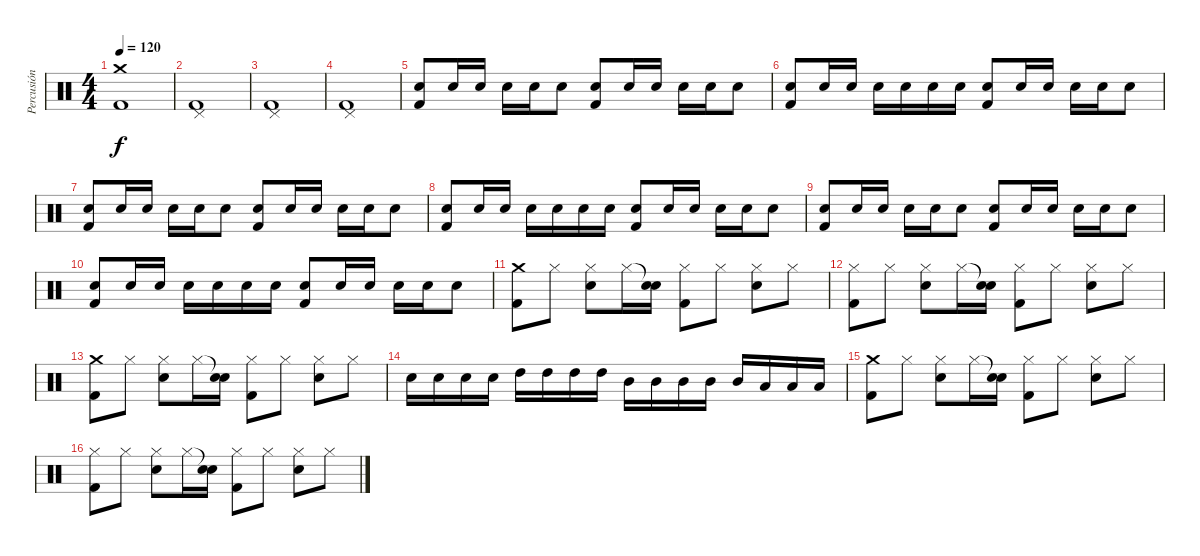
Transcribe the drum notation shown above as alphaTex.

\track ("Percusión" "Percusión") {instrument percussion}
\staff {score}
\articulation defaults
\ts (4 4)
\tempo 120
\clef neutral
\ks c
("Crash medium (hit)" "Kick (hit) 2").1{dy f} |
("Pedal Hi-Hat (hit)" "Kick (hit) 2").1 |
("Pedal Hi-Hat (hit)" "Kick (hit) 2").1 |
("Pedal Hi-Hat (hit)" "Kick (hit) 2").1 |
("Electric Snare (hit)" "Kick (hit) 2").8 "Electric Snare (hit)".16 "Electric Snare (hit)".16 "Electric Snare (hit)".16 "Electric Snare (hit)".16 "Electric Snare (hit)".8 ("Electric Snare (hit)" "Kick (hit) 2").8 "Electric Snare (hit)".16 "Electric Snare (hit)".16 "Electric Snare (hit)".16 "Electric Snare (hit)".16 "Electric Snare (hit)".8 |
("Electric Snare (hit)" "Kick (hit) 2").8 "Electric Snare (hit)".16 "Electric Snare (hit)".16 "Electric Snare (hit)".16 "Electric Snare (hit)".16 "Electric Snare (hit)".16 "Electric Snare (hit)".16 ("Electric Snare (hit)" "Kick (hit) 2").8 "Electric Snare (hit)".16 "Electric Snare (hit)".16 "Electric Snare (hit)".16 "Electric Snare (hit)".16 "Electric Snare (hit)".8 |
("Electric Snare (hit)" "Kick (hit) 2").8 "Electric Snare (hit)".16 "Electric Snare (hit)".16 "Electric Snare (hit)".16 "Electric Snare (hit)".16 "Electric Snare (hit)".8 ("Electric Snare (hit)" "Kick (hit) 2").8 "Electric Snare (hit)".16 "Electric Snare (hit)".16 "Electric Snare (hit)".16 "Electric Snare (hit)".16 "Electric Snare (hit)".8 |
("Electric Snare (hit)" "Kick (hit) 2").8 "Electric Snare (hit)".16 "Electric Snare (hit)".16 "Electric Snare (hit)".16 "Electric Snare (hit)".16 "Electric Snare (hit)".16 "Electric Snare (hit)".16 ("Electric Snare (hit)" "Kick (hit) 2").8 "Electric Snare (hit)".16 "Electric Snare (hit)".16 "Electric Snare (hit)".16 "Electric Snare (hit)".16 "Electric Snare (hit)".8 |
("Electric Snare (hit)" "Kick (hit) 2").8 "Electric Snare (hit)".16 "Electric Snare (hit)".16 "Electric Snare (hit)".16 "Electric Snare (hit)".16 "Electric Snare (hit)".8 ("Electric Snare (hit)" "Kick (hit) 2").8 "Electric Snare (hit)".16 "Electric Snare (hit)".16 "Electric Snare (hit)".16 "Electric Snare (hit)".16 "Electric Snare (hit)".8 |
("Electric Snare (hit)" "Kick (hit) 2").8 "Electric Snare (hit)".16 "Electric Snare (hit)".16 "Electric Snare (hit)".16 "Electric Snare (hit)".16 "Electric Snare (hit)".16 "Electric Snare (hit)".16 ("Electric Snare (hit)" "Kick (hit) 2").8 "Electric Snare (hit)".16 "Electric Snare (hit)".16 "Electric Snare (hit)".16 "Electric Snare (hit)".16 "Electric Snare (hit)".8 |
("Crash medium (hit)" "Kick (hit) 2").8 "Hi-Hat (closed)".8 ("Hi-Hat (closed)" "Electric Snare (hit)").8 "Hi-Hat (closed)".16 ("Snare (hit)"{t} "Electric Snare (hit)").16 ("Hi-Hat (closed)" "Kick (hit) 2").8 "Hi-Hat (closed)".8 ("Hi-Hat (closed)" "Electric Snare (hit)").8 "Hi-Hat (closed)".8 |
("Hi-Hat (closed)" "Kick (hit) 2").8 "Hi-Hat (closed)".8 ("Hi-Hat (closed)" "Electric Snare (hit)").8 "Hi-Hat (closed)".16 ("Snare (hit)"{t} "Electric Snare (hit)").16 ("Hi-Hat (closed)" "Kick (hit) 2").8 "Hi-Hat (closed)".8 ("Hi-Hat (closed)" "Electric Snare (hit)").8 "Hi-Hat (closed)".8 |
("Crash medium (hit)" "Kick (hit) 2").8 "Hi-Hat (closed)".8 ("Hi-Hat (closed)" "Electric Snare (hit)").8 "Hi-Hat (closed)".16 ("Snare (hit)"{t} "Electric Snare (hit)").16 ("Hi-Hat (closed)" "Kick (hit) 2").8 "Hi-Hat (closed)".8 ("Hi-Hat (closed)" "Electric Snare (hit)").8 "Hi-Hat (closed)".8 |
"Electric Snare (hit)".16 "Electric Snare (hit)".16 "Electric Snare (hit)".16 "Electric Snare (hit)".16 "High Tom (hit)".16 "High Tom (hit)".16 "High Tom (hit)".16 "High Tom (hit)".16 "Mid Tom (hit)".16 "Mid Tom (hit)".16 "Mid Tom (hit)".16 "Mid Tom (hit)".16 "Mid Tom (hit)".16 "Low Tom (hit)".16 "Low Tom (hit)".16 "Low Tom (hit)".16 |
("Crash medium (hit)" "Kick (hit) 2").8 "Hi-Hat (closed)".8 ("Hi-Hat (closed)" "Electric Snare (hit)").8 "Hi-Hat (closed)".16 ("Snare (hit)"{t} "Electric Snare (hit)").16 ("Hi-Hat (closed)" "Kick (hit) 2").8 "Hi-Hat (closed)".8 ("Hi-Hat (closed)" "Electric Snare (hit)").8 "Hi-Hat (closed)".8 |
("Hi-Hat (closed)" "Kick (hit) 2").8 "Hi-Hat (closed)".8 ("Hi-Hat (closed)" "Electric Snare (hit)").8 "Hi-Hat (closed)".16 ("Snare (hit)"{t} "Electric Snare (hit)").16 ("Hi-Hat (closed)" "Kick (hit) 2").8 "Hi-Hat (closed)".8 ("Hi-Hat (closed)" "Electric Snare (hit)").8 "Hi-Hat (closed)".8
